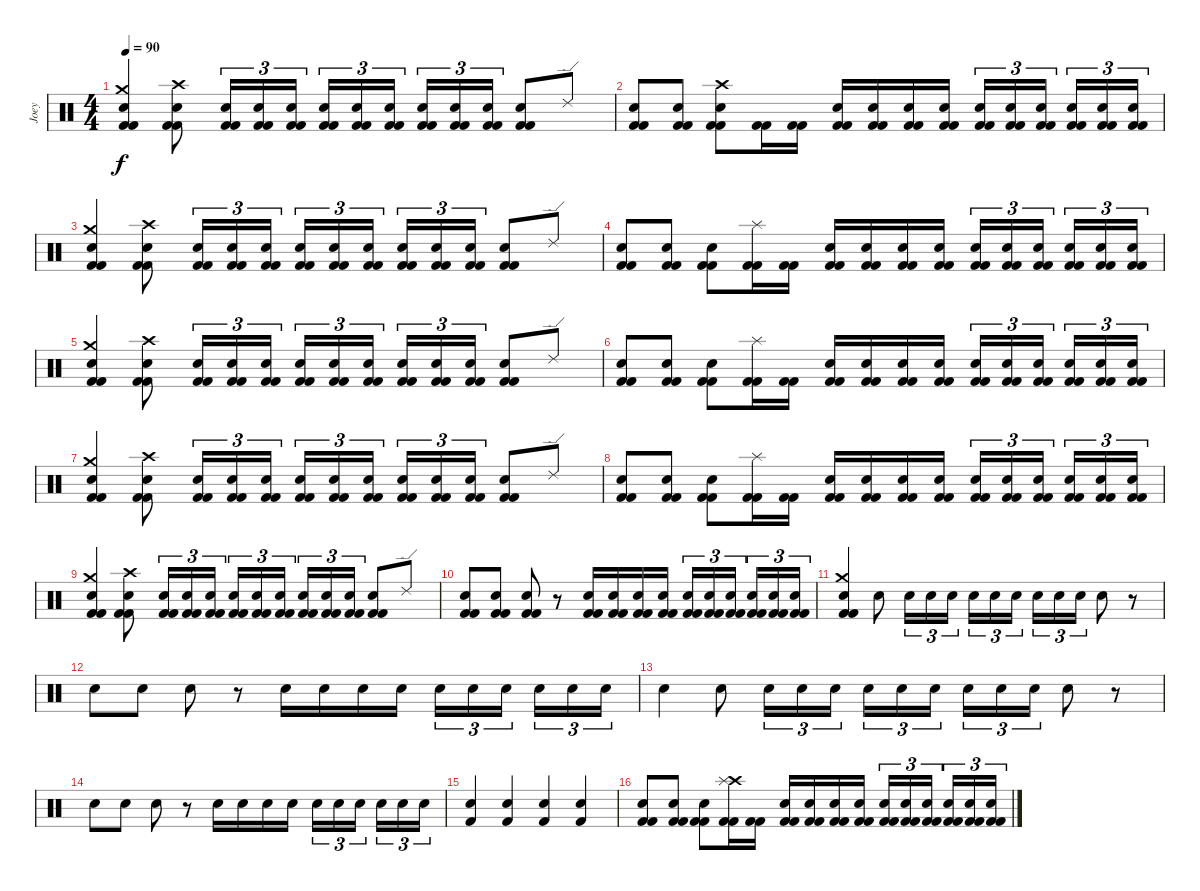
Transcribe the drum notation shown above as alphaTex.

\track ("Joey" "Joey") {instrument percussion}
\staff {score}
\articulation defaults
\ts (4 4)
\tempo 90
\clef neutral
\ks c
("Electric Snare (hit)" "Crash medium (hit)" "Kick (hit) 2" "Kick (hit) 2").4{dy f} ("Electric Snare (hit)" "Crash high (hit)" "Kick (hit) 2" "Kick (hit) 2").8 ("Electric Snare (hit)" "Kick (hit) 2" "Kick (hit) 2").16{tu (3 2)} ("Electric Snare (hit)" "Kick (hit) 2" "Kick (hit) 2").16{tu (3 2)} ("Electric Snare (hit)" "Kick (hit) 2" "Kick (hit) 2").16{tu (3 2)} ("Electric Snare (hit)" "Kick (hit) 2" "Kick (hit) 2").16{tu (3 2)} ("Electric Snare (hit)" "Kick (hit) 2" "Kick (hit) 2").16{tu (3 2)} ("Electric Snare (hit)" "Kick (hit) 2" "Kick (hit) 2").16{tu (3 2) beam splitsecondary} ("Electric Snare (hit)" "Kick (hit) 2" "Kick (hit) 2").16{tu (3 2)} ("Electric Snare (hit)" "Kick (hit) 2" "Kick (hit) 2").16{tu (3 2)} ("Electric Snare (hit)" "Kick (hit) 2" "Kick (hit) 2").16{tu (3 2)} ("Electric Snare (hit)" "Kick (hit) 2" "Kick (hit) 2").8 "Ride (edge) 2".8 |
("Electric Snare (hit)" "Kick (hit) 2" "Kick (hit) 2").8 ("Electric Snare (hit)" "Kick (hit) 2" "Kick (hit) 2").8 ("Electric Snare (hit)" "Crash high (hit)" "Kick (hit) 2" "Kick (hit) 2").8 ("Kick (hit) 2" "Kick (hit) 2").16 ("Kick (hit) 2" "Kick (hit) 2").16 ("Electric Snare (hit)" "Kick (hit) 2" "Kick (hit) 2").16 ("Electric Snare (hit)" "Kick (hit) 2" "Kick (hit) 2").16 ("Electric Snare (hit)" "Kick (hit) 2" "Kick (hit) 2").16 ("Electric Snare (hit)" "Kick (hit) 2" "Kick (hit) 2").16 ("Electric Snare (hit)" "Kick (hit) 2" "Kick (hit) 2").16{tu (3 2)} ("Electric Snare (hit)" "Kick (hit) 2" "Kick (hit) 2").16{tu (3 2)} ("Electric Snare (hit)" "Kick (hit) 2" "Kick (hit) 2").16{tu (3 2) beam splitsecondary} ("Electric Snare (hit)" "Kick (hit) 2" "Kick (hit) 2").16{tu (3 2)} ("Electric Snare (hit)" "Kick (hit) 2" "Kick (hit) 2").16{tu (3 2)} ("Electric Snare (hit)" "Kick (hit) 2" "Kick (hit) 2").16{tu (3 2)} |
("Electric Snare (hit)" "Crash medium (hit)" "Kick (hit) 2" "Kick (hit) 2").4 ("Electric Snare (hit)" "Crash high (hit)" "Kick (hit) 2" "Kick (hit) 2").8 ("Electric Snare (hit)" "Kick (hit) 2" "Kick (hit) 2").16{tu (3 2)} ("Electric Snare (hit)" "Kick (hit) 2" "Kick (hit) 2").16{tu (3 2)} ("Electric Snare (hit)" "Kick (hit) 2" "Kick (hit) 2").16{tu (3 2)} ("Electric Snare (hit)" "Kick (hit) 2" "Kick (hit) 2").16{tu (3 2)} ("Electric Snare (hit)" "Kick (hit) 2" "Kick (hit) 2").16{tu (3 2)} ("Electric Snare (hit)" "Kick (hit) 2" "Kick (hit) 2").16{tu (3 2) beam splitsecondary} ("Electric Snare (hit)" "Kick (hit) 2" "Kick (hit) 2").16{tu (3 2)} ("Electric Snare (hit)" "Kick (hit) 2" "Kick (hit) 2").16{tu (3 2)} ("Electric Snare (hit)" "Kick (hit) 2" "Kick (hit) 2").16{tu (3 2)} ("Electric Snare (hit)" "Kick (hit) 2" "Kick (hit) 2").8 "Ride (edge) 2".8 |
("Electric Snare (hit)" "Kick (hit) 2" "Kick (hit) 2").8 ("Electric Snare (hit)" "Kick (hit) 2" "Kick (hit) 2").8 ("Electric Snare (hit)" "Kick (hit) 2" "Kick (hit) 2").8 ("Splash (hit)" "Kick (hit) 2" "Kick (hit) 2").16 ("Kick (hit) 2" "Kick (hit) 2").16 ("Electric Snare (hit)" "Kick (hit) 2" "Kick (hit) 2").16 ("Electric Snare (hit)" "Kick (hit) 2" "Kick (hit) 2").16 ("Electric Snare (hit)" "Kick (hit) 2" "Kick (hit) 2").16 ("Electric Snare (hit)" "Kick (hit) 2" "Kick (hit) 2").16 ("Electric Snare (hit)" "Kick (hit) 2" "Kick (hit) 2").16{tu (3 2)} ("Electric Snare (hit)" "Kick (hit) 2" "Kick (hit) 2").16{tu (3 2)} ("Electric Snare (hit)" "Kick (hit) 2" "Kick (hit) 2").16{tu (3 2) beam splitsecondary} ("Electric Snare (hit)" "Kick (hit) 2" "Kick (hit) 2").16{tu (3 2)} ("Electric Snare (hit)" "Kick (hit) 2" "Kick (hit) 2").16{tu (3 2)} ("Electric Snare (hit)" "Kick (hit) 2" "Kick (hit) 2").16{tu (3 2)} |
("Electric Snare (hit)" "Crash medium (hit)" "Kick (hit) 2" "Kick (hit) 2").4 ("Electric Snare (hit)" "Crash high (hit)" "Kick (hit) 2" "Kick (hit) 2").8 ("Electric Snare (hit)" "Kick (hit) 2" "Kick (hit) 2").16{tu (3 2)} ("Electric Snare (hit)" "Kick (hit) 2" "Kick (hit) 2").16{tu (3 2)} ("Electric Snare (hit)" "Kick (hit) 2" "Kick (hit) 2").16{tu (3 2)} ("Electric Snare (hit)" "Kick (hit) 2" "Kick (hit) 2").16{tu (3 2)} ("Electric Snare (hit)" "Kick (hit) 2" "Kick (hit) 2").16{tu (3 2)} ("Electric Snare (hit)" "Kick (hit) 2" "Kick (hit) 2").16{tu (3 2) beam splitsecondary} ("Electric Snare (hit)" "Kick (hit) 2" "Kick (hit) 2").16{tu (3 2)} ("Electric Snare (hit)" "Kick (hit) 2" "Kick (hit) 2").16{tu (3 2)} ("Electric Snare (hit)" "Kick (hit) 2" "Kick (hit) 2").16{tu (3 2)} ("Electric Snare (hit)" "Kick (hit) 2" "Kick (hit) 2").8 "Ride (edge) 2".8 |
("Electric Snare (hit)" "Kick (hit) 2" "Kick (hit) 2").8 ("Electric Snare (hit)" "Kick (hit) 2" "Kick (hit) 2").8 ("Electric Snare (hit)" "Kick (hit) 2" "Kick (hit) 2").8 ("Splash (hit)" "Kick (hit) 2" "Kick (hit) 2").16 ("Kick (hit) 2" "Kick (hit) 2").16 ("Electric Snare (hit)" "Kick (hit) 2" "Kick (hit) 2").16 ("Electric Snare (hit)" "Kick (hit) 2" "Kick (hit) 2").16 ("Electric Snare (hit)" "Kick (hit) 2" "Kick (hit) 2").16 ("Electric Snare (hit)" "Kick (hit) 2" "Kick (hit) 2").16 ("Electric Snare (hit)" "Kick (hit) 2" "Kick (hit) 2").16{tu (3 2)} ("Electric Snare (hit)" "Kick (hit) 2" "Kick (hit) 2").16{tu (3 2)} ("Electric Snare (hit)" "Kick (hit) 2" "Kick (hit) 2").16{tu (3 2) beam splitsecondary} ("Electric Snare (hit)" "Kick (hit) 2" "Kick (hit) 2").16{tu (3 2)} ("Electric Snare (hit)" "Kick (hit) 2" "Kick (hit) 2").16{tu (3 2)} ("Electric Snare (hit)" "Kick (hit) 2" "Kick (hit) 2").16{tu (3 2)} |
("Electric Snare (hit)" "Crash medium (hit)" "Kick (hit) 2" "Kick (hit) 2").4 ("Electric Snare (hit)" "Crash high (hit)" "Kick (hit) 2" "Kick (hit) 2").8 ("Electric Snare (hit)" "Kick (hit) 2" "Kick (hit) 2").16{tu (3 2)} ("Electric Snare (hit)" "Kick (hit) 2" "Kick (hit) 2").16{tu (3 2)} ("Electric Snare (hit)" "Kick (hit) 2" "Kick (hit) 2").16{tu (3 2)} ("Electric Snare (hit)" "Kick (hit) 2" "Kick (hit) 2").16{tu (3 2)} ("Electric Snare (hit)" "Kick (hit) 2" "Kick (hit) 2").16{tu (3 2)} ("Electric Snare (hit)" "Kick (hit) 2" "Kick (hit) 2").16{tu (3 2) beam splitsecondary} ("Electric Snare (hit)" "Kick (hit) 2" "Kick (hit) 2").16{tu (3 2)} ("Electric Snare (hit)" "Kick (hit) 2" "Kick (hit) 2").16{tu (3 2)} ("Electric Snare (hit)" "Kick (hit) 2" "Kick (hit) 2").16{tu (3 2)} ("Electric Snare (hit)" "Kick (hit) 2" "Kick (hit) 2").8 "Ride (edge) 2".8 |
("Electric Snare (hit)" "Kick (hit) 2" "Kick (hit) 2").8 ("Electric Snare (hit)" "Kick (hit) 2" "Kick (hit) 2").8 ("Electric Snare (hit)" "Kick (hit) 2" "Kick (hit) 2").8 ("Splash (hit)" "Kick (hit) 2" "Kick (hit) 2").16 ("Kick (hit) 2" "Kick (hit) 2").16 ("Electric Snare (hit)" "Kick (hit) 2" "Kick (hit) 2").16 ("Electric Snare (hit)" "Kick (hit) 2" "Kick (hit) 2").16 ("Electric Snare (hit)" "Kick (hit) 2" "Kick (hit) 2").16 ("Electric Snare (hit)" "Kick (hit) 2" "Kick (hit) 2").16 ("Electric Snare (hit)" "Kick (hit) 2" "Kick (hit) 2").16{tu (3 2)} ("Electric Snare (hit)" "Kick (hit) 2" "Kick (hit) 2").16{tu (3 2)} ("Electric Snare (hit)" "Kick (hit) 2" "Kick (hit) 2").16{tu (3 2) beam splitsecondary} ("Electric Snare (hit)" "Kick (hit) 2" "Kick (hit) 2").16{tu (3 2)} ("Electric Snare (hit)" "Kick (hit) 2" "Kick (hit) 2").16{tu (3 2)} ("Electric Snare (hit)" "Kick (hit) 2" "Kick (hit) 2").16{tu (3 2)} |
("Electric Snare (hit)" "Crash medium (hit)" "Kick (hit) 2" "Kick (hit) 2").4 ("Electric Snare (hit)" "Crash high (hit)" "Kick (hit) 2" "Kick (hit) 2").8 ("Electric Snare (hit)" "Kick (hit) 2" "Kick (hit) 2").16{tu (3 2)} ("Electric Snare (hit)" "Kick (hit) 2" "Kick (hit) 2").16{tu (3 2)} ("Electric Snare (hit)" "Kick (hit) 2" "Kick (hit) 2").16{tu (3 2)} ("Electric Snare (hit)" "Kick (hit) 2" "Kick (hit) 2").16{tu (3 2)} ("Electric Snare (hit)" "Kick (hit) 2" "Kick (hit) 2").16{tu (3 2)} ("Electric Snare (hit)" "Kick (hit) 2" "Kick (hit) 2").16{tu (3 2) beam splitsecondary} ("Electric Snare (hit)" "Kick (hit) 2" "Kick (hit) 2").16{tu (3 2)} ("Electric Snare (hit)" "Kick (hit) 2" "Kick (hit) 2").16{tu (3 2)} ("Electric Snare (hit)" "Kick (hit) 2" "Kick (hit) 2").16{tu (3 2)} ("Electric Snare (hit)" "Kick (hit) 2" "Kick (hit) 2").8 "Ride (edge) 2".8 |
("Electric Snare (hit)" "Kick (hit) 2" "Kick (hit) 2").8 ("Electric Snare (hit)" "Kick (hit) 2" "Kick (hit) 2").8 ("Electric Snare (hit)" "Kick (hit) 2" "Kick (hit) 2").8 r.8 ("Electric Snare (hit)" "Kick (hit) 2" "Kick (hit) 2").16 ("Electric Snare (hit)" "Kick (hit) 2" "Kick (hit) 2").16 ("Electric Snare (hit)" "Kick (hit) 2" "Kick (hit) 2").16 ("Electric Snare (hit)" "Kick (hit) 2" "Kick (hit) 2").16 ("Electric Snare (hit)" "Kick (hit) 2" "Kick (hit) 2").16{tu (3 2)} ("Electric Snare (hit)" "Kick (hit) 2" "Kick (hit) 2").16{tu (3 2)} ("Electric Snare (hit)" "Kick (hit) 2" "Kick (hit) 2").16{tu (3 2) beam splitsecondary} ("Electric Snare (hit)" "Kick (hit) 2" "Kick (hit) 2").16{tu (3 2)} ("Electric Snare (hit)" "Kick (hit) 2" "Kick (hit) 2").16{tu (3 2)} ("Electric Snare (hit)" "Kick (hit) 2" "Kick (hit) 2").16{tu (3 2)} |
("Electric Snare (hit)" "Crash medium (hit)" "Kick (hit) 2" "Kick (hit) 2").4 "Electric Snare (hit)".8 "Electric Snare (hit)".16{tu (3 2)} "Electric Snare (hit)".16{tu (3 2)} "Electric Snare (hit)".16{tu (3 2)} "Electric Snare (hit)".16{tu (3 2)} "Electric Snare (hit)".16{tu (3 2)} "Electric Snare (hit)".16{tu (3 2) beam splitsecondary} "Electric Snare (hit)".16{tu (3 2)} "Electric Snare (hit)".16{tu (3 2)} "Electric Snare (hit)".16{tu (3 2)} "Electric Snare (hit)".8 r.8 |
"Electric Snare (hit)".8 "Electric Snare (hit)".8 "Electric Snare (hit)".8 r.8 "Electric Snare (hit)".16 "Electric Snare (hit)".16 "Electric Snare (hit)".16 "Electric Snare (hit)".16 "Electric Snare (hit)".16{tu (3 2)} "Electric Snare (hit)".16{tu (3 2)} "Electric Snare (hit)".16{tu (3 2) beam splitsecondary} "Electric Snare (hit)".16{tu (3 2)} "Electric Snare (hit)".16{tu (3 2)} "Electric Snare (hit)".16{tu (3 2)} |
"Electric Snare (hit)".4 "Electric Snare (hit)".8 "Electric Snare (hit)".16{tu (3 2)} "Electric Snare (hit)".16{tu (3 2)} "Electric Snare (hit)".16{tu (3 2)} "Electric Snare (hit)".16{tu (3 2)} "Electric Snare (hit)".16{tu (3 2)} "Electric Snare (hit)".16{tu (3 2) beam splitsecondary} "Electric Snare (hit)".16{tu (3 2)} "Electric Snare (hit)".16{tu (3 2)} "Electric Snare (hit)".16{tu (3 2)} "Electric Snare (hit)".8 r.8 |
"Electric Snare (hit)".8 "Electric Snare (hit)".8 "Electric Snare (hit)".8 r.8 "Electric Snare (hit)".16 "Electric Snare (hit)".16 "Electric Snare (hit)".16 "Electric Snare (hit)".16 "Electric Snare (hit)".16{tu (3 2)} "Electric Snare (hit)".16{tu (3 2)} "Electric Snare (hit)".16{tu (3 2) beam splitsecondary} "Electric Snare (hit)".16{tu (3 2)} "Electric Snare (hit)".16{tu (3 2)} "Electric Snare (hit)".16{tu (3 2)} |
("Electric Snare (hit)" "Kick (hit) 2").4 ("Electric Snare (hit)" "Kick (hit) 2").4 ("Electric Snare (hit)" "Kick (hit) 2").4 ("Electric Snare (hit)" "Kick (hit) 2").4 |
("Electric Snare (hit)" "Kick (hit) 2" "Kick (hit) 2").8 ("Electric Snare (hit)" "Kick (hit) 2" "Kick (hit) 2").8 ("Electric Snare (hit)" "Kick (hit) 2" "Kick (hit) 2").8 ("Crash high (hit)" "Splash (hit)" "Kick (hit) 2" "Kick (hit) 2").16 ("Kick (hit) 2" "Kick (hit) 2").16 ("Electric Snare (hit)" "Kick (hit) 2" "Kick (hit) 2").16 ("Electric Snare (hit)" "Kick (hit) 2" "Kick (hit) 2").16 ("Electric Snare (hit)" "Kick (hit) 2" "Kick (hit) 2").16 ("Electric Snare (hit)" "Kick (hit) 2" "Kick (hit) 2").16 ("Electric Snare (hit)" "Kick (hit) 2" "Kick (hit) 2").16{tu (3 2)} ("Electric Snare (hit)" "Kick (hit) 2" "Kick (hit) 2").16{tu (3 2)} ("Electric Snare (hit)" "Kick (hit) 2" "Kick (hit) 2").16{tu (3 2) beam splitsecondary} ("Electric Snare (hit)" "Kick (hit) 2" "Kick (hit) 2").16{tu (3 2)} ("Electric Snare (hit)" "Kick (hit) 2" "Kick (hit) 2").16{tu (3 2)} ("Electric Snare (hit)" "Kick (hit) 2" "Kick (hit) 2").16{tu (3 2)}
